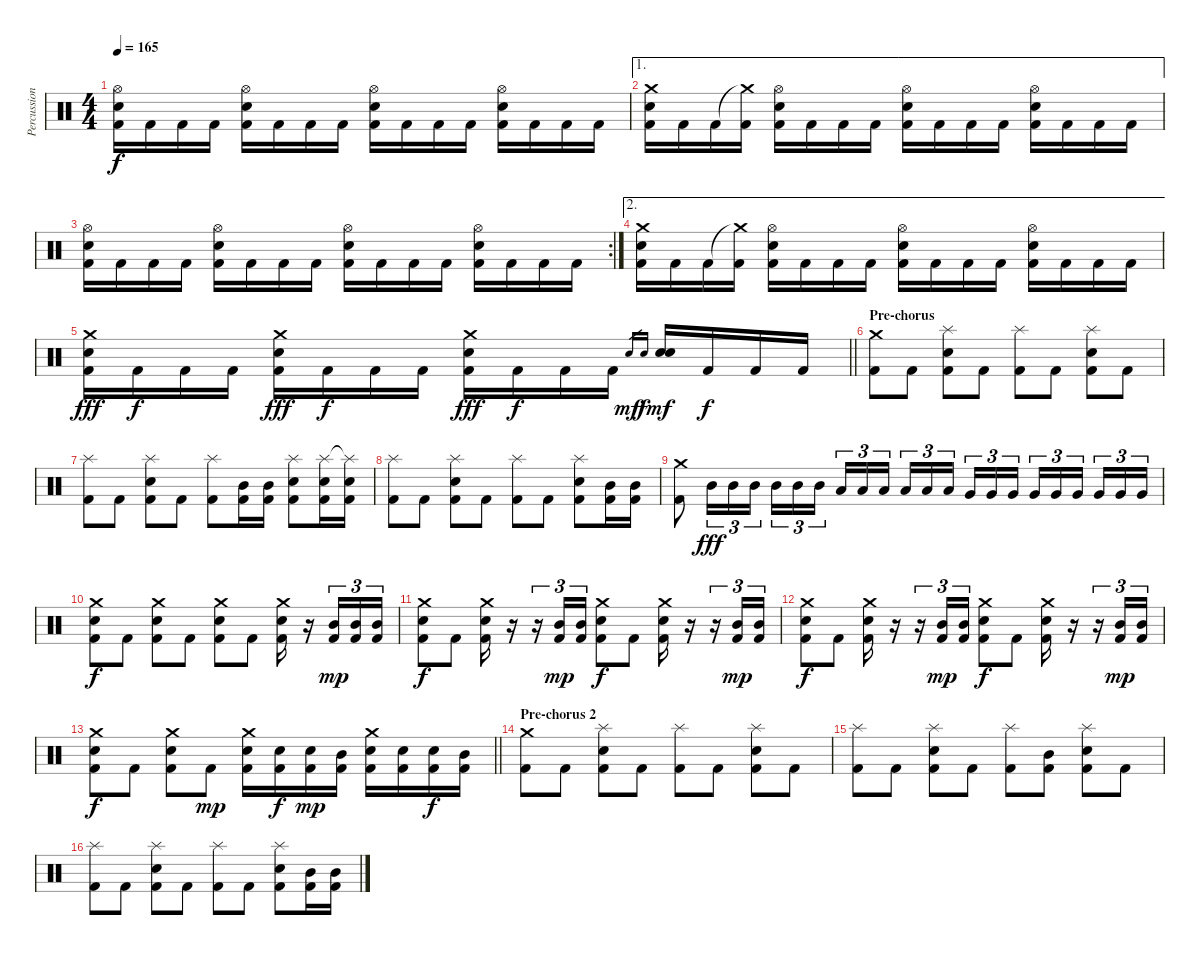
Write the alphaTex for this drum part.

\track ("Percussion" "Percussion") {instrument percussion}
\staff {score}
\articulation defaults
\ts (4 4)
\tempo 165
\clef neutral
\ks c
("Hi-Hat (open)" "Electric Snare (hit)" "Kick (hit) 2").16{dy f} "Kick (hit) 2".16 "Kick (hit) 2".16 "Kick (hit) 2".16 ("Hi-Hat (open)" "Electric Snare (hit)" "Kick (hit) 2").16 "Kick (hit) 2".16 "Kick (hit) 2".16 "Kick (hit) 2".16 ("Hi-Hat (open)" "Electric Snare (hit)" "Kick (hit) 2").16 "Kick (hit) 2".16 "Kick (hit) 2".16 "Kick (hit) 2".16 ("Hi-Hat (open)" "Electric Snare (hit)" "Kick (hit) 2").16 "Kick (hit) 2".16 "Kick (hit) 2".16 "Kick (hit) 2".16 |
\ae 1
("Crash medium (hit)" "Electric Snare (hit)" "Kick (hit) 2").16 "Kick (hit) 2".16 "Kick (hit) 2".16 ("Crash medium (hit)"{t} "Kick (hit) 2").16 ("Hi-Hat (open)" "Electric Snare (hit)" "Kick (hit) 2").16 "Kick (hit) 2".16 "Kick (hit) 2".16 "Kick (hit) 2".16 ("Hi-Hat (open)" "Electric Snare (hit)" "Kick (hit) 2").16 "Kick (hit) 2".16 "Kick (hit) 2".16 "Kick (hit) 2".16 ("Hi-Hat (open)" "Electric Snare (hit)" "Kick (hit) 2").16 "Kick (hit) 2".16 "Kick (hit) 2".16 "Kick (hit) 2".16 |
\rc 2
("Hi-Hat (open)" "Electric Snare (hit)" "Kick (hit) 2").16 "Kick (hit) 2".16 "Kick (hit) 2".16 "Kick (hit) 2".16 ("Hi-Hat (open)" "Electric Snare (hit)" "Kick (hit) 2").16 "Kick (hit) 2".16 "Kick (hit) 2".16 "Kick (hit) 2".16 ("Hi-Hat (open)" "Electric Snare (hit)" "Kick (hit) 2").16 "Kick (hit) 2".16 "Kick (hit) 2".16 "Kick (hit) 2".16 ("Hi-Hat (open)" "Electric Snare (hit)" "Kick (hit) 2").16 "Kick (hit) 2".16 "Kick (hit) 2".16 "Kick (hit) 2".16 |
\ae 2
("Crash medium (hit)" "Electric Snare (hit)" "Kick (hit) 2").16 "Kick (hit) 2".16 "Kick (hit) 2".16 ("Crash medium (hit)"{t} "Kick (hit) 2").16 ("Hi-Hat (open)" "Electric Snare (hit)" "Kick (hit) 2").16 "Kick (hit) 2".16 "Kick (hit) 2".16 "Kick (hit) 2".16 ("Hi-Hat (open)" "Electric Snare (hit)" "Kick (hit) 2").16 "Kick (hit) 2".16 "Kick (hit) 2".16 "Kick (hit) 2".16 ("Hi-Hat (open)" "Electric Snare (hit)" "Kick (hit) 2").16 "Kick (hit) 2".16 "Kick (hit) 2".16 "Kick (hit) 2".16 |
\barLineRight lightlight
("Crash medium (hit)" "Electric Snare (hit)" "Kick (hit) 2").16{dy fff} "Kick (hit) 2".16{dy f} "Kick (hit) 2".16 "Kick (hit) 2".16 ("Crash medium (hit)" "Electric Snare (hit)" "Kick (hit) 2").16{dy fff} "Kick (hit) 2".16{dy f} "Kick (hit) 2".16 "Kick (hit) 2".16 ("Crash medium (hit)" "Electric Snare (hit)" "Kick (hit) 2").16{dy fff} "Kick (hit) 2".16{dy f} "Kick (hit) 2".16 "Kick (hit) 2".16 "Electric Snare (hit)".16{gr dy mf} "Electric Snare (hit)".16{gr dy f} ("Electric Snare (hit)" "Electric Snare (hit)").16{dy mf} "Kick (hit) 2".16{dy f} "Kick (hit) 2".16 "Kick (hit) 2".16 |
\section ("" "Pre-chorus")
("Crash medium (hit)" "Kick (hit) 2").8 "Kick (hit) 2".8 ("Splash (hit)" "Electric Snare (hit)" "Kick (hit) 2").8 "Kick (hit) 2".8 ("Splash (hit)" "Kick (hit) 2").8 "Kick (hit) 2".8 ("Splash (hit)" "Electric Snare (hit)" "Kick (hit) 2").8 "Kick (hit) 2".8 |
("Splash (hit)" "Kick (hit) 2").8 "Kick (hit) 2".8 ("Splash (hit)" "Electric Snare (hit)" "Kick (hit) 2").8 "Kick (hit) 2".8 ("Splash (hit)" "Kick (hit) 2").8 ("Mid Tom (hit)" "Kick (hit) 2").16 ("Mid Tom (hit)" "Kick (hit) 2").16 ("Splash (hit)" "Electric Snare (hit)" "Kick (hit) 2").8 ("Splash (hit)" "Electric Snare (hit)" "Kick (hit) 2").16 ("Splash (hit)"{t} "Electric Snare (hit)" "Kick (hit) 2").16 |
("Splash (hit)" "Kick (hit) 2").8 "Kick (hit) 2".8 ("Splash (hit)" "Electric Snare (hit)" "Kick (hit) 2").8 "Kick (hit) 2".8 ("Splash (hit)" "Kick (hit) 2").8 "Kick (hit) 2".8 ("Splash (hit)" "Electric Snare (hit)" "Kick (hit) 2").8 ("Mid Tom (hit)" "Kick (hit) 2").16 ("Mid Tom (hit)" "Kick (hit) 2").16 |
("Crash medium (hit)" "Kick (hit) 2").8 "Mid Tom (hit)".16{tu (3 2) dy fff} "Mid Tom (hit)".16{tu (3 2)} "Mid Tom (hit)".16{tu (3 2)} "Mid Tom (hit)".16{tu (3 2)} "Mid Tom (hit)".16{tu (3 2)} "Mid Tom (hit)".16{tu (3 2) beam splitsecondary} "Low Tom (hit)".16{tu (3 2)} "Low Tom (hit)".16{tu (3 2)} "Low Tom (hit)".16{tu (3 2)} "Low Tom (hit)".16{tu (3 2)} "Low Tom (hit)".16{tu (3 2)} "Low Tom (hit)".16{tu (3 2) beam splitsecondary} "Very Low Tom (hit)".16{tu (3 2)} "Very Low Tom (hit)".16{tu (3 2)} "Very Low Tom (hit)".16{tu (3 2)} "Very Low Tom (hit)".16{tu (3 2)} "Very Low Tom (hit)".16{tu (3 2)} "Very Low Tom (hit)".16{tu (3 2) beam splitsecondary} "Very Low Tom (hit)".16{tu (3 2)} "Very Low Tom (hit)".16{tu (3 2)} "Very Low Tom (hit)".16{tu (3 2)} |
("Crash medium (hit)" "Electric Snare (hit)" "Kick (hit) 2").8{dy f} "Kick (hit) 2".8 ("Crash medium (hit)" "Electric Snare (hit)" "Kick (hit) 2").8 "Kick (hit) 2".8 ("Crash medium (hit)" "Electric Snare (hit)" "Kick (hit) 2").8 "Kick (hit) 2".8 ("Crash medium (hit)" "Electric Snare (hit)" "Kick (hit) 2").16 r.16 ("Mid Tom (hit)" "Kick (hit) 2").16{tu (3 2) dy mp} ("Mid Tom (hit)" "Kick (hit) 2").16{tu (3 2)} ("Mid Tom (hit)" "Kick (hit) 2").16{tu (3 2)} |
("Crash medium (hit)" "Electric Snare (hit)" "Kick (hit) 2").8{dy f} "Kick (hit) 2".8 ("Crash medium (hit)" "Electric Snare (hit)" "Kick (hit) 2").16 r.16 r.16{tu (3 2)} ("Mid Tom (hit)" "Kick (hit) 2").16{tu (3 2) dy mp} ("Mid Tom (hit)" "Kick (hit) 2").16{tu (3 2)} ("Crash medium (hit)" "Electric Snare (hit)" "Kick (hit) 2").8{dy f} "Kick (hit) 2".8 ("Crash medium (hit)" "Electric Snare (hit)" "Kick (hit) 2").16 r.16 r.16{tu (3 2)} ("Mid Tom (hit)" "Kick (hit) 2").16{tu (3 2) dy mp} ("Mid Tom (hit)" "Kick (hit) 2").16{tu (3 2)} |
("Crash medium (hit)" "Electric Snare (hit)" "Kick (hit) 2").8{dy f} "Kick (hit) 2".8 ("Crash medium (hit)" "Electric Snare (hit)" "Kick (hit) 2").16 r.16 r.16{tu (3 2)} ("Mid Tom (hit)" "Kick (hit) 2").16{tu (3 2) dy mp} ("Mid Tom (hit)" "Kick (hit) 2").16{tu (3 2)} ("Crash medium (hit)" "Electric Snare (hit)" "Kick (hit) 2").8{dy f} "Kick (hit) 2".8 ("Crash medium (hit)" "Electric Snare (hit)" "Kick (hit) 2").16 r.16 r.16{tu (3 2)} ("Mid Tom (hit)" "Kick (hit) 2").16{tu (3 2) dy mp} ("Mid Tom (hit)" "Kick (hit) 2").16{tu (3 2)} |
\barLineRight lightlight
("Crash medium (hit)" "Electric Snare (hit)" "Kick (hit) 2").8{dy f} "Kick (hit) 2".8 ("Crash medium (hit)" "Electric Snare (hit)" "Kick (hit) 2").8 "Kick (hit) 2".8{dy mp} ("Crash medium (hit)" "Electric Snare (hit)" "Kick (hit) 2").16 ("Electric Snare (hit)" "Kick (hit) 2").16{dy f} ("Electric Snare (hit)" "Kick (hit) 2").16{dy mp} ("Mid Tom (hit)" "Kick (hit) 2").16 ("Crash medium (hit)" "Electric Snare (hit)" "Kick (hit) 2").16 ("Electric Snare (hit)" "Kick (hit) 2").16 ("Electric Snare (hit)" "Kick (hit) 2").16{dy f} ("Mid Tom (hit)" "Kick (hit) 2").16 |
\section ("" "Pre-chorus 2")
("Crash medium (hit)" "Kick (hit) 2").8 "Kick (hit) 2".8 ("Splash (hit)" "Electric Snare (hit)" "Kick (hit) 2").8 "Kick (hit) 2".8 ("Splash (hit)" "Kick (hit) 2").8 "Kick (hit) 2".8 ("Splash (hit)" "Electric Snare (hit)" "Kick (hit) 2").8 "Kick (hit) 2".8 |
("Splash (hit)" "Kick (hit) 2").8 "Kick (hit) 2".8 ("Splash (hit)" "Electric Snare (hit)" "Kick (hit) 2").8 "Kick (hit) 2".8 ("Splash (hit)" "Kick (hit) 2").8 ("Mid Tom (hit)" "Kick (hit) 2").8 ("Splash (hit)" "Electric Snare (hit)" "Kick (hit) 2").8 "Kick (hit) 2".8 |
("Splash (hit)" "Kick (hit) 2").8 "Kick (hit) 2".8 ("Splash (hit)" "Electric Snare (hit)" "Kick (hit) 2").8 "Kick (hit) 2".8 ("Splash (hit)" "Kick (hit) 2").8 "Kick (hit) 2".8 ("Splash (hit)" "Electric Snare (hit)" "Kick (hit) 2").8 ("Mid Tom (hit)" "Kick (hit) 2").16 ("Mid Tom (hit)" "Kick (hit) 2").16
